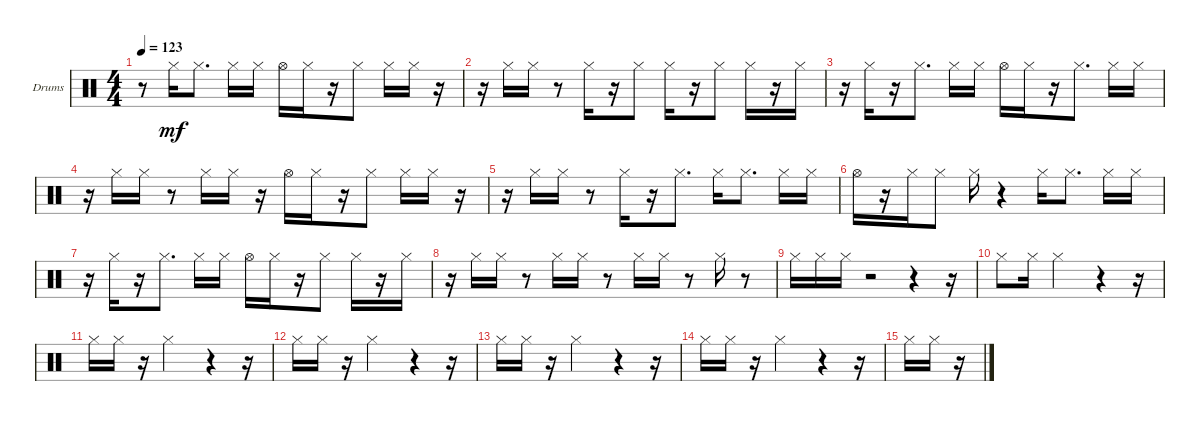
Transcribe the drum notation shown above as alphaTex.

\bracketExtendMode groupsimilarinstruments
\firstSystemTrackNameOrientation horizontal
\otherSystemsTrackNameOrientation horizontal
\track ("Drums" "Drums") {instrument percussion}
\staff {score}
\articulation defaults
\ts (4 4)
\tempo 123
\clef neutral
\ks c
r.8{dy mf} "Hi-Hat (closed)".16 "Hi-Hat (closed)".8{d} "Hi-Hat (closed)".16 "Hi-Hat (closed)".16 "Hi-Hat (open)".16 "Hi-Hat (closed)".16 r.16 "Hi-Hat (closed)".8 "Hi-Hat (closed)".16 "Hi-Hat (closed)".16 r.16 |
r.16 "Hi-Hat (closed)".16 "Hi-Hat (closed)".16 r.8 "Hi-Hat (closed)".16 r.16 "Hi-Hat (closed)".8 "Hi-Hat (closed)".16 r.16 "Hi-Hat (closed)".8 "Hi-Hat (closed)".16 r.16 "Hi-Hat (closed)".16 |
r.16 "Hi-Hat (closed)".16 r.16 "Hi-Hat (closed)".8{d} "Hi-Hat (closed)".16 "Hi-Hat (closed)".16 "Hi-Hat (open)".16 "Hi-Hat (closed)".16 r.16 "Hi-Hat (closed)".8{d} "Hi-Hat (closed)".16 "Hi-Hat (closed)".16 |
r.16 "Hi-Hat (closed)".16 "Hi-Hat (closed)".16 r.8 "Hi-Hat (closed)".16 "Hi-Hat (closed)".16 r.16 "Hi-Hat (open)".16 "Hi-Hat (closed)".16 r.16 "Hi-Hat (closed)".8 "Hi-Hat (closed)".16 "Hi-Hat (closed)".16 r.16 |
r.16 "Hi-Hat (closed)".16 "Hi-Hat (closed)".16 r.8 "Hi-Hat (closed)".16 r.16 "Hi-Hat (closed)".8{d} "Hi-Hat (closed)".16 "Hi-Hat (closed)".8{d} "Hi-Hat (closed)".16 "Hi-Hat (closed)".16 |
"Hi-Hat (open)".16 r.16 "Hi-Hat (closed)".16 "Hi-Hat (closed)".8 "Hi-Hat (closed)".16 r.4 "Hi-Hat (closed)".16 "Hi-Hat (closed)".8{d} "Hi-Hat (closed)".16 "Hi-Hat (closed)".16 |
r.16 "Hi-Hat (closed)".16 r.16 "Hi-Hat (closed)".8{d} "Hi-Hat (closed)".16 "Hi-Hat (closed)".16 "Hi-Hat (open)".16 "Hi-Hat (closed)".16 r.16 "Hi-Hat (closed)".8 "Hi-Hat (closed)".16 r.16 "Hi-Hat (closed)".16 |
r.16 "Hi-Hat (closed)".16 "Hi-Hat (closed)".16 r.8 "Hi-Hat (closed)".16 "Hi-Hat (closed)".16 r.8 "Hi-Hat (closed)".16 "Hi-Hat (closed)".16 r.8 "Hi-Hat (closed)".16 r.8 |
"Hi-Hat (closed)".16 "Hi-Hat (closed)".16 "Hi-Hat (closed)".16 r.2 r.4 r.16 |
"Hi-Hat (closed)".8 "Hi-Hat (closed)".16 "Hi-Hat (closed)".2 r.4 r.16 |
"Hi-Hat (closed)".16 "Hi-Hat (closed)".16 r.16 "Hi-Hat (closed)".2 r.4 r.16 |
"Hi-Hat (closed)".16 "Hi-Hat (closed)".16 r.16 "Hi-Hat (closed)".2 r.4 r.16 |
"Hi-Hat (closed)".16 "Hi-Hat (closed)".16 r.16 "Hi-Hat (closed)".2 r.4 r.16 |
"Hi-Hat (closed)".16 "Hi-Hat (closed)".16 r.16 "Hi-Hat (closed)".2 r.4 r.16 |
"Hi-Hat (closed)".16 "Hi-Hat (closed)".16 r.16
